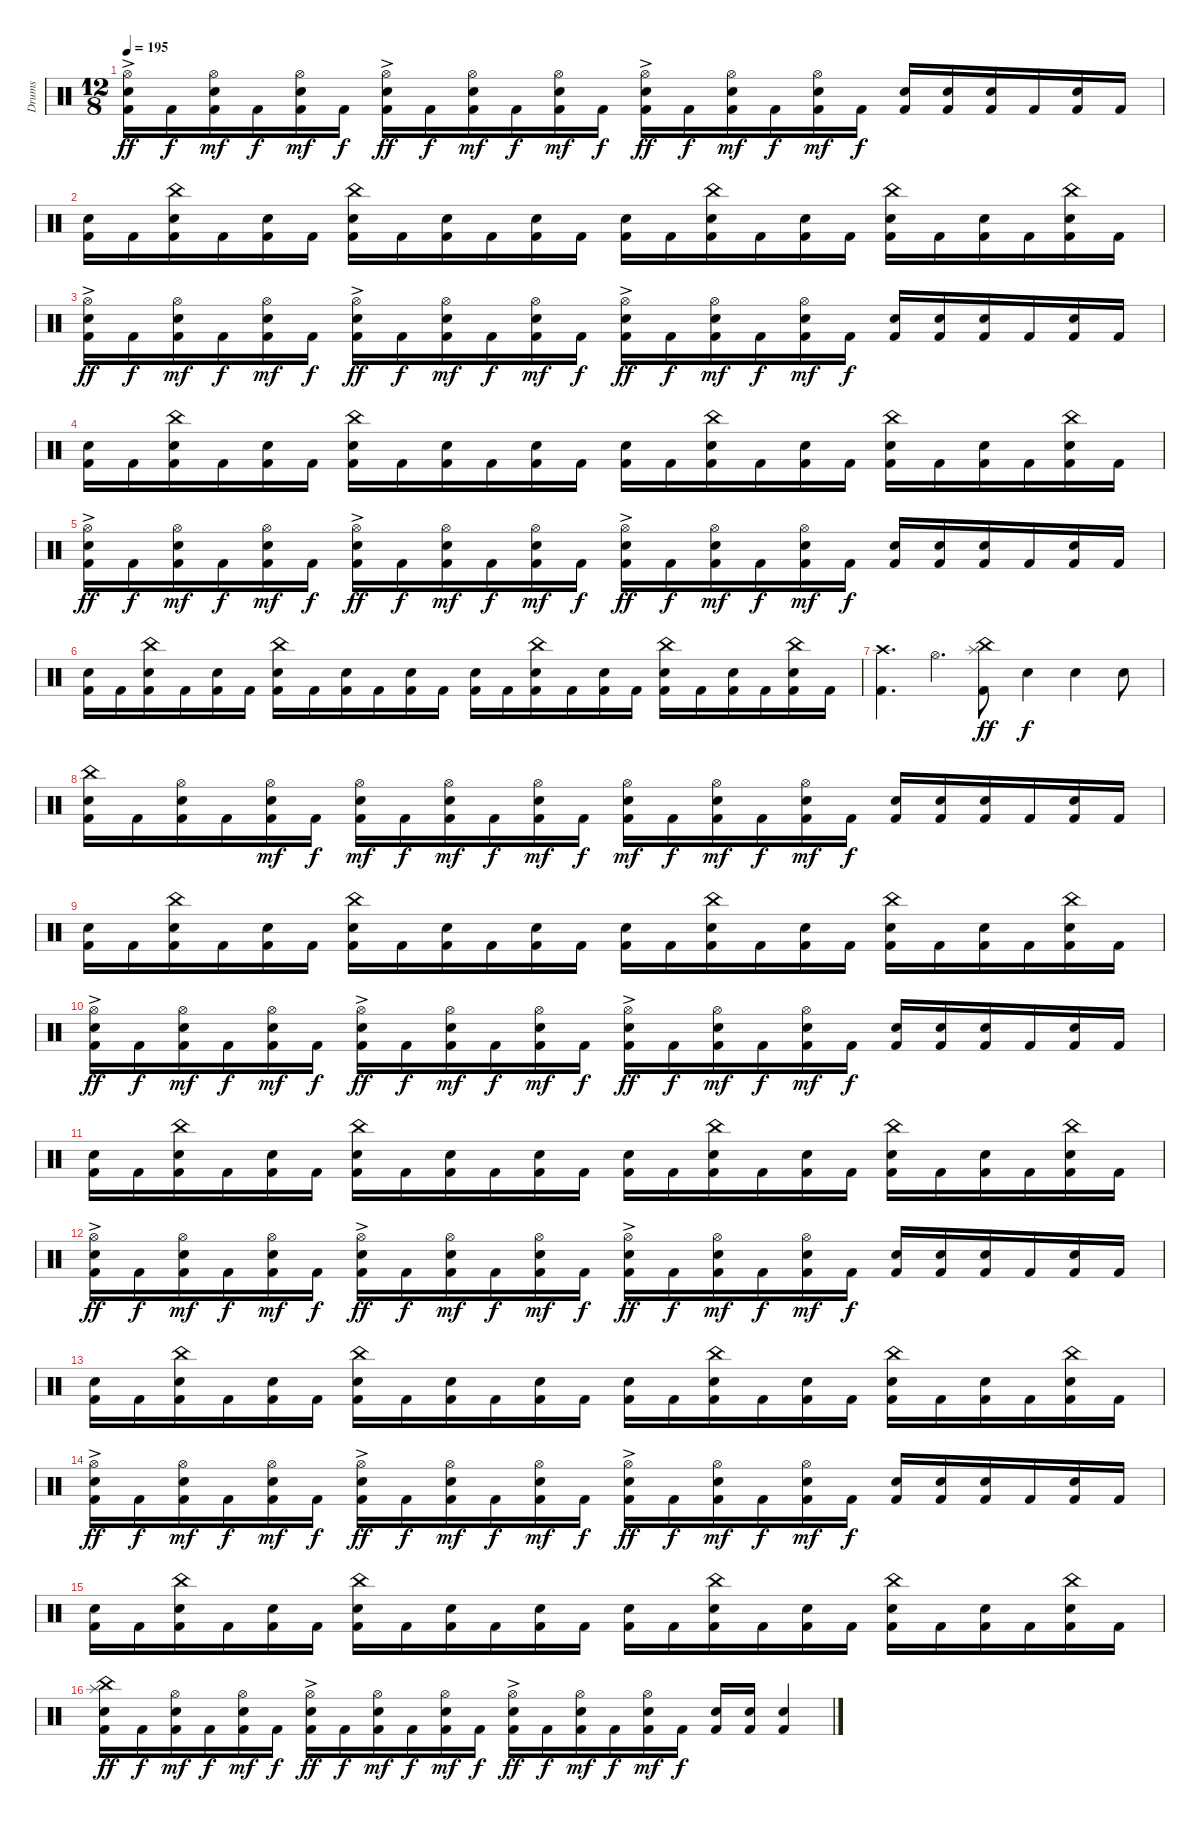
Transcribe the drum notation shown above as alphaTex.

\track ("Drums" "Drums") {instrument percussion}
\staff {score}
\articulation defaults
\ts (12 8)
\tempo 195
\clef neutral
\ks c
("Kick (hit) 2" "Electric Snare (hit)" "Hi-Hat (open)"{ac}).16{dy ff} "Kick (hit) 2".16{dy f} ("Kick (hit) 2" "Electric Snare (hit)" "Hi-Hat (open)").16{dy mf} "Kick (hit) 2".16{dy f} ("Kick (hit) 2" "Electric Snare (hit)" "Hi-Hat (open)").16{dy mf} "Kick (hit) 2".16{dy f} ("Kick (hit) 2" "Electric Snare (hit)" "Hi-Hat (open)"{ac}).16{dy ff} "Kick (hit) 2".16{dy f} ("Kick (hit) 2" "Electric Snare (hit)" "Hi-Hat (open)").16{dy mf} "Kick (hit) 2".16{dy f} ("Kick (hit) 2" "Electric Snare (hit)" "Hi-Hat (open)").16{dy mf} "Kick (hit) 2".16{dy f} ("Kick (hit) 2" "Electric Snare (hit)" "Hi-Hat (open)"{ac}).16{dy ff} "Kick (hit) 2".16{dy f} ("Kick (hit) 2" "Electric Snare (hit)" "Hi-Hat (open)").16{dy mf} "Kick (hit) 2".16{dy f} ("Kick (hit) 2" "Electric Snare (hit)" "Hi-Hat (open)").16{dy mf} "Kick (hit) 2".16{dy f} ("Kick (hit) 2" "Electric Snare (hit)").16 ("Kick (hit) 2" "Electric Snare (hit)").16 ("Kick (hit) 2" "Electric Snare (hit)").16 "Kick (hit) 2".16 ("Kick (hit) 2" "Electric Snare (hit)").16 "Kick (hit) 2".16 |
("Kick (hit) 2" "Electric Snare (hit)").16 "Kick (hit) 2".16 ("Kick (hit) 2" "Electric Snare (hit)" "China (hit)").16 "Kick (hit) 2".16 ("Kick (hit) 2" "Electric Snare (hit)").16 "Kick (hit) 2".16 ("Kick (hit) 2" "Electric Snare (hit)" "China (hit)").16 "Kick (hit) 2".16 ("Kick (hit) 2" "Electric Snare (hit)").16 "Kick (hit) 2".16 ("Kick (hit) 2" "Electric Snare (hit)").16 "Kick (hit) 2".16 ("Kick (hit) 2" "Electric Snare (hit)").16 "Kick (hit) 2".16 ("Kick (hit) 2" "Electric Snare (hit)" "China (hit)").16 "Kick (hit) 2".16 ("Kick (hit) 2" "Electric Snare (hit)").16 "Kick (hit) 2".16 ("Kick (hit) 2" "Electric Snare (hit)" "China (hit)").16 "Kick (hit) 2".16 ("Kick (hit) 2" "Electric Snare (hit)").16 "Kick (hit) 2".16 ("Kick (hit) 2" "Electric Snare (hit)" "China (hit)").16 "Kick (hit) 2".16 |
("Kick (hit) 2" "Electric Snare (hit)" "Hi-Hat (open)"{ac}).16{dy ff} "Kick (hit) 2".16{dy f} ("Kick (hit) 2" "Electric Snare (hit)" "Hi-Hat (open)").16{dy mf} "Kick (hit) 2".16{dy f} ("Kick (hit) 2" "Electric Snare (hit)" "Hi-Hat (open)").16{dy mf} "Kick (hit) 2".16{dy f} ("Kick (hit) 2" "Electric Snare (hit)" "Hi-Hat (open)"{ac}).16{dy ff} "Kick (hit) 2".16{dy f} ("Kick (hit) 2" "Electric Snare (hit)" "Hi-Hat (open)").16{dy mf} "Kick (hit) 2".16{dy f} ("Kick (hit) 2" "Electric Snare (hit)" "Hi-Hat (open)").16{dy mf} "Kick (hit) 2".16{dy f} ("Kick (hit) 2" "Electric Snare (hit)" "Hi-Hat (open)"{ac}).16{dy ff} "Kick (hit) 2".16{dy f} ("Kick (hit) 2" "Electric Snare (hit)" "Hi-Hat (open)").16{dy mf} "Kick (hit) 2".16{dy f} ("Kick (hit) 2" "Electric Snare (hit)" "Hi-Hat (open)").16{dy mf} "Kick (hit) 2".16{dy f} ("Kick (hit) 2" "Electric Snare (hit)").16 ("Kick (hit) 2" "Electric Snare (hit)").16 ("Kick (hit) 2" "Electric Snare (hit)").16 "Kick (hit) 2".16 ("Kick (hit) 2" "Electric Snare (hit)").16 "Kick (hit) 2".16 |
("Kick (hit) 2" "Electric Snare (hit)").16 "Kick (hit) 2".16 ("Kick (hit) 2" "Electric Snare (hit)" "China (hit)").16 "Kick (hit) 2".16 ("Kick (hit) 2" "Electric Snare (hit)").16 "Kick (hit) 2".16 ("Kick (hit) 2" "Electric Snare (hit)" "China (hit)").16 "Kick (hit) 2".16 ("Kick (hit) 2" "Electric Snare (hit)").16 "Kick (hit) 2".16 ("Kick (hit) 2" "Electric Snare (hit)").16 "Kick (hit) 2".16 ("Kick (hit) 2" "Electric Snare (hit)").16 "Kick (hit) 2".16 ("Kick (hit) 2" "Electric Snare (hit)" "China (hit)").16 "Kick (hit) 2".16 ("Kick (hit) 2" "Electric Snare (hit)").16 "Kick (hit) 2".16 ("Kick (hit) 2" "Electric Snare (hit)" "China (hit)").16 "Kick (hit) 2".16 ("Kick (hit) 2" "Electric Snare (hit)").16 "Kick (hit) 2".16 ("Kick (hit) 2" "Electric Snare (hit)" "China (hit)").16 "Kick (hit) 2".16 |
("Kick (hit) 2" "Electric Snare (hit)" "Hi-Hat (open)"{ac}).16{dy ff} "Kick (hit) 2".16{dy f} ("Kick (hit) 2" "Electric Snare (hit)" "Hi-Hat (open)").16{dy mf} "Kick (hit) 2".16{dy f} ("Kick (hit) 2" "Electric Snare (hit)" "Hi-Hat (open)").16{dy mf} "Kick (hit) 2".16{dy f} ("Kick (hit) 2" "Electric Snare (hit)" "Hi-Hat (open)"{ac}).16{dy ff} "Kick (hit) 2".16{dy f} ("Kick (hit) 2" "Electric Snare (hit)" "Hi-Hat (open)").16{dy mf} "Kick (hit) 2".16{dy f} ("Kick (hit) 2" "Electric Snare (hit)" "Hi-Hat (open)").16{dy mf} "Kick (hit) 2".16{dy f} ("Kick (hit) 2" "Electric Snare (hit)" "Hi-Hat (open)"{ac}).16{dy ff} "Kick (hit) 2".16{dy f} ("Kick (hit) 2" "Electric Snare (hit)" "Hi-Hat (open)").16{dy mf} "Kick (hit) 2".16{dy f} ("Kick (hit) 2" "Electric Snare (hit)" "Hi-Hat (open)").16{dy mf} "Kick (hit) 2".16{dy f} ("Kick (hit) 2" "Electric Snare (hit)").16 ("Kick (hit) 2" "Electric Snare (hit)").16 ("Kick (hit) 2" "Electric Snare (hit)").16 "Kick (hit) 2".16 ("Kick (hit) 2" "Electric Snare (hit)").16 "Kick (hit) 2".16 |
("Kick (hit) 2" "Electric Snare (hit)").16 "Kick (hit) 2".16 ("Kick (hit) 2" "Electric Snare (hit)" "China (hit)").16 "Kick (hit) 2".16 ("Kick (hit) 2" "Electric Snare (hit)").16 "Kick (hit) 2".16 ("Kick (hit) 2" "Electric Snare (hit)" "China (hit)").16 "Kick (hit) 2".16 ("Kick (hit) 2" "Electric Snare (hit)").16 "Kick (hit) 2".16 ("Kick (hit) 2" "Electric Snare (hit)").16 "Kick (hit) 2".16 ("Kick (hit) 2" "Electric Snare (hit)").16 "Kick (hit) 2".16 ("Kick (hit) 2" "Electric Snare (hit)" "China (hit)").16 "Kick (hit) 2".16 ("Kick (hit) 2" "Electric Snare (hit)").16 "Kick (hit) 2".16 ("Kick (hit) 2" "Electric Snare (hit)" "China (hit)").16 "Kick (hit) 2".16 ("Kick (hit) 2" "Electric Snare (hit)").16 "Kick (hit) 2".16 ("Kick (hit) 2" "Electric Snare (hit)" "China (hit)").16 "Kick (hit) 2".16 |
("Kick (hit) 2" "Crash high (hit)").4{d} "Hi-Hat (open)".4{d} ("Kick (hit) 2" "China (hit)" "Splash (hit)").8{dy ff} "Electric Snare (hit)".4{dy f} "Electric Snare (hit)".4 "Electric Snare (hit)".8 |
("Kick (hit) 2" "Electric Snare (hit)" "China (hit)").16 "Kick (hit) 2".16 ("Kick (hit) 2" "Electric Snare (hit)" "Hi-Hat (open)").16 "Kick (hit) 2".16 ("Kick (hit) 2" "Electric Snare (hit)" "Hi-Hat (open)").16{dy mf} "Kick (hit) 2".16{dy f} ("Kick (hit) 2" "Electric Snare (hit)" "Hi-Hat (open)").16{dy mf} "Kick (hit) 2".16{dy f} ("Kick (hit) 2" "Electric Snare (hit)" "Hi-Hat (open)").16{dy mf} "Kick (hit) 2".16{dy f} ("Kick (hit) 2" "Electric Snare (hit)" "Hi-Hat (open)").16{dy mf} "Kick (hit) 2".16{dy f} ("Kick (hit) 2" "Electric Snare (hit)" "Hi-Hat (open)").16{dy mf} "Kick (hit) 2".16{dy f} ("Kick (hit) 2" "Electric Snare (hit)" "Hi-Hat (open)").16{dy mf} "Kick (hit) 2".16{dy f} ("Kick (hit) 2" "Electric Snare (hit)" "Hi-Hat (open)").16{dy mf} "Kick (hit) 2".16{dy f} ("Kick (hit) 2" "Electric Snare (hit)").16 ("Kick (hit) 2" "Electric Snare (hit)").16 ("Kick (hit) 2" "Electric Snare (hit)").16 "Kick (hit) 2".16 ("Kick (hit) 2" "Electric Snare (hit)").16 "Kick (hit) 2".16 |
("Kick (hit) 2" "Electric Snare (hit)").16 "Kick (hit) 2".16 ("Kick (hit) 2" "Electric Snare (hit)" "China (hit)").16 "Kick (hit) 2".16 ("Kick (hit) 2" "Electric Snare (hit)").16 "Kick (hit) 2".16 ("Kick (hit) 2" "Electric Snare (hit)" "China (hit)").16 "Kick (hit) 2".16 ("Kick (hit) 2" "Electric Snare (hit)").16 "Kick (hit) 2".16 ("Kick (hit) 2" "Electric Snare (hit)").16 "Kick (hit) 2".16 ("Kick (hit) 2" "Electric Snare (hit)").16 "Kick (hit) 2".16 ("Kick (hit) 2" "Electric Snare (hit)" "China (hit)").16 "Kick (hit) 2".16 ("Kick (hit) 2" "Electric Snare (hit)").16 "Kick (hit) 2".16 ("Kick (hit) 2" "Electric Snare (hit)" "China (hit)").16 "Kick (hit) 2".16 ("Kick (hit) 2" "Electric Snare (hit)").16 "Kick (hit) 2".16 ("Kick (hit) 2" "Electric Snare (hit)" "China (hit)").16 "Kick (hit) 2".16 |
("Kick (hit) 2" "Electric Snare (hit)" "Hi-Hat (open)"{ac}).16{dy ff} "Kick (hit) 2".16{dy f} ("Kick (hit) 2" "Electric Snare (hit)" "Hi-Hat (open)").16{dy mf} "Kick (hit) 2".16{dy f} ("Kick (hit) 2" "Electric Snare (hit)" "Hi-Hat (open)").16{dy mf} "Kick (hit) 2".16{dy f} ("Kick (hit) 2" "Electric Snare (hit)" "Hi-Hat (open)"{ac}).16{dy ff} "Kick (hit) 2".16{dy f} ("Kick (hit) 2" "Electric Snare (hit)" "Hi-Hat (open)").16{dy mf} "Kick (hit) 2".16{dy f} ("Kick (hit) 2" "Electric Snare (hit)" "Hi-Hat (open)").16{dy mf} "Kick (hit) 2".16{dy f} ("Kick (hit) 2" "Electric Snare (hit)" "Hi-Hat (open)"{ac}).16{dy ff} "Kick (hit) 2".16{dy f} ("Kick (hit) 2" "Electric Snare (hit)" "Hi-Hat (open)").16{dy mf} "Kick (hit) 2".16{dy f} ("Kick (hit) 2" "Electric Snare (hit)" "Hi-Hat (open)").16{dy mf} "Kick (hit) 2".16{dy f} ("Kick (hit) 2" "Electric Snare (hit)").16 ("Kick (hit) 2" "Electric Snare (hit)").16 ("Kick (hit) 2" "Electric Snare (hit)").16 "Kick (hit) 2".16 ("Kick (hit) 2" "Electric Snare (hit)").16 "Kick (hit) 2".16 |
("Kick (hit) 2" "Electric Snare (hit)").16 "Kick (hit) 2".16 ("Kick (hit) 2" "Electric Snare (hit)" "China (hit)").16 "Kick (hit) 2".16 ("Kick (hit) 2" "Electric Snare (hit)").16 "Kick (hit) 2".16 ("Kick (hit) 2" "Electric Snare (hit)" "China (hit)").16 "Kick (hit) 2".16 ("Kick (hit) 2" "Electric Snare (hit)").16 "Kick (hit) 2".16 ("Kick (hit) 2" "Electric Snare (hit)").16 "Kick (hit) 2".16 ("Kick (hit) 2" "Electric Snare (hit)").16 "Kick (hit) 2".16 ("Kick (hit) 2" "Electric Snare (hit)" "China (hit)").16 "Kick (hit) 2".16 ("Kick (hit) 2" "Electric Snare (hit)").16 "Kick (hit) 2".16 ("Kick (hit) 2" "Electric Snare (hit)" "China (hit)").16 "Kick (hit) 2".16 ("Kick (hit) 2" "Electric Snare (hit)").16 "Kick (hit) 2".16 ("Kick (hit) 2" "Electric Snare (hit)" "China (hit)").16 "Kick (hit) 2".16 |
("Kick (hit) 2" "Electric Snare (hit)" "Hi-Hat (open)"{ac}).16{dy ff} "Kick (hit) 2".16{dy f} ("Kick (hit) 2" "Electric Snare (hit)" "Hi-Hat (open)").16{dy mf} "Kick (hit) 2".16{dy f} ("Kick (hit) 2" "Electric Snare (hit)" "Hi-Hat (open)").16{dy mf} "Kick (hit) 2".16{dy f} ("Kick (hit) 2" "Electric Snare (hit)" "Hi-Hat (open)"{ac}).16{dy ff} "Kick (hit) 2".16{dy f} ("Kick (hit) 2" "Electric Snare (hit)" "Hi-Hat (open)").16{dy mf} "Kick (hit) 2".16{dy f} ("Kick (hit) 2" "Electric Snare (hit)" "Hi-Hat (open)").16{dy mf} "Kick (hit) 2".16{dy f} ("Kick (hit) 2" "Electric Snare (hit)" "Hi-Hat (open)"{ac}).16{dy ff} "Kick (hit) 2".16{dy f} ("Kick (hit) 2" "Electric Snare (hit)" "Hi-Hat (open)").16{dy mf} "Kick (hit) 2".16{dy f} ("Kick (hit) 2" "Electric Snare (hit)" "Hi-Hat (open)").16{dy mf} "Kick (hit) 2".16{dy f} ("Kick (hit) 2" "Electric Snare (hit)").16 ("Kick (hit) 2" "Electric Snare (hit)").16 ("Kick (hit) 2" "Electric Snare (hit)").16 "Kick (hit) 2".16 ("Kick (hit) 2" "Electric Snare (hit)").16 "Kick (hit) 2".16 |
("Kick (hit) 2" "Electric Snare (hit)").16 "Kick (hit) 2".16 ("Kick (hit) 2" "Electric Snare (hit)" "China (hit)").16 "Kick (hit) 2".16 ("Kick (hit) 2" "Electric Snare (hit)").16 "Kick (hit) 2".16 ("Kick (hit) 2" "Electric Snare (hit)" "China (hit)").16 "Kick (hit) 2".16 ("Kick (hit) 2" "Electric Snare (hit)").16 "Kick (hit) 2".16 ("Kick (hit) 2" "Electric Snare (hit)").16 "Kick (hit) 2".16 ("Kick (hit) 2" "Electric Snare (hit)").16 "Kick (hit) 2".16 ("Kick (hit) 2" "Electric Snare (hit)" "China (hit)").16 "Kick (hit) 2".16 ("Kick (hit) 2" "Electric Snare (hit)").16 "Kick (hit) 2".16 ("Kick (hit) 2" "Electric Snare (hit)" "China (hit)").16 "Kick (hit) 2".16 ("Kick (hit) 2" "Electric Snare (hit)").16 "Kick (hit) 2".16 ("Kick (hit) 2" "Electric Snare (hit)" "China (hit)").16 "Kick (hit) 2".16 |
("Kick (hit) 2" "Electric Snare (hit)" "Hi-Hat (open)"{ac}).16{dy ff} "Kick (hit) 2".16{dy f} ("Kick (hit) 2" "Electric Snare (hit)" "Hi-Hat (open)").16{dy mf} "Kick (hit) 2".16{dy f} ("Kick (hit) 2" "Electric Snare (hit)" "Hi-Hat (open)").16{dy mf} "Kick (hit) 2".16{dy f} ("Kick (hit) 2" "Electric Snare (hit)" "Hi-Hat (open)"{ac}).16{dy ff} "Kick (hit) 2".16{dy f} ("Kick (hit) 2" "Electric Snare (hit)" "Hi-Hat (open)").16{dy mf} "Kick (hit) 2".16{dy f} ("Kick (hit) 2" "Electric Snare (hit)" "Hi-Hat (open)").16{dy mf} "Kick (hit) 2".16{dy f} ("Kick (hit) 2" "Electric Snare (hit)" "Hi-Hat (open)"{ac}).16{dy ff} "Kick (hit) 2".16{dy f} ("Kick (hit) 2" "Electric Snare (hit)" "Hi-Hat (open)").16{dy mf} "Kick (hit) 2".16{dy f} ("Kick (hit) 2" "Electric Snare (hit)" "Hi-Hat (open)").16{dy mf} "Kick (hit) 2".16{dy f} ("Kick (hit) 2" "Electric Snare (hit)").16 ("Kick (hit) 2" "Electric Snare (hit)").16 ("Kick (hit) 2" "Electric Snare (hit)").16 "Kick (hit) 2".16 ("Kick (hit) 2" "Electric Snare (hit)").16 "Kick (hit) 2".16 |
("Kick (hit) 2" "Electric Snare (hit)").16 "Kick (hit) 2".16 ("Kick (hit) 2" "Electric Snare (hit)" "China (hit)").16 "Kick (hit) 2".16 ("Kick (hit) 2" "Electric Snare (hit)").16 "Kick (hit) 2".16 ("Kick (hit) 2" "Electric Snare (hit)" "China (hit)").16 "Kick (hit) 2".16 ("Kick (hit) 2" "Electric Snare (hit)").16 "Kick (hit) 2".16 ("Kick (hit) 2" "Electric Snare (hit)").16 "Kick (hit) 2".16 ("Kick (hit) 2" "Electric Snare (hit)").16 "Kick (hit) 2".16 ("Kick (hit) 2" "Electric Snare (hit)" "China (hit)").16 "Kick (hit) 2".16 ("Kick (hit) 2" "Electric Snare (hit)").16 "Kick (hit) 2".16 ("Kick (hit) 2" "Electric Snare (hit)" "China (hit)").16 "Kick (hit) 2".16 ("Kick (hit) 2" "Electric Snare (hit)").16 "Kick (hit) 2".16 ("Kick (hit) 2" "Electric Snare (hit)" "China (hit)").16 "Kick (hit) 2".16 |
("Kick (hit) 2" "Electric Snare (hit)" "Splash (hit)" "China (hit)").16{dy ff} "Kick (hit) 2".16{dy f} ("Kick (hit) 2" "Electric Snare (hit)" "Hi-Hat (open)").16{dy mf} "Kick (hit) 2".16{dy f} ("Kick (hit) 2" "Electric Snare (hit)" "Hi-Hat (open)").16{dy mf} "Kick (hit) 2".16{dy f} ("Kick (hit) 2" "Electric Snare (hit)" "Hi-Hat (open)"{ac}).16{dy ff} "Kick (hit) 2".16{dy f} ("Kick (hit) 2" "Electric Snare (hit)" "Hi-Hat (open)").16{dy mf} "Kick (hit) 2".16{dy f} ("Kick (hit) 2" "Electric Snare (hit)" "Hi-Hat (open)").16{dy mf} "Kick (hit) 2".16{dy f} ("Kick (hit) 2" "Electric Snare (hit)" "Hi-Hat (open)"{ac}).16{dy ff} "Kick (hit) 2".16{dy f} ("Kick (hit) 2" "Electric Snare (hit)" "Hi-Hat (open)").16{dy mf} "Kick (hit) 2".16{dy f} ("Kick (hit) 2" "Electric Snare (hit)" "Hi-Hat (open)").16{dy mf} "Kick (hit) 2".16{dy f} ("Kick (hit) 2" "Electric Snare (hit)").16 ("Kick (hit) 2" "Electric Snare (hit)").16 ("Kick (hit) 2" "Electric Snare (hit)").4
